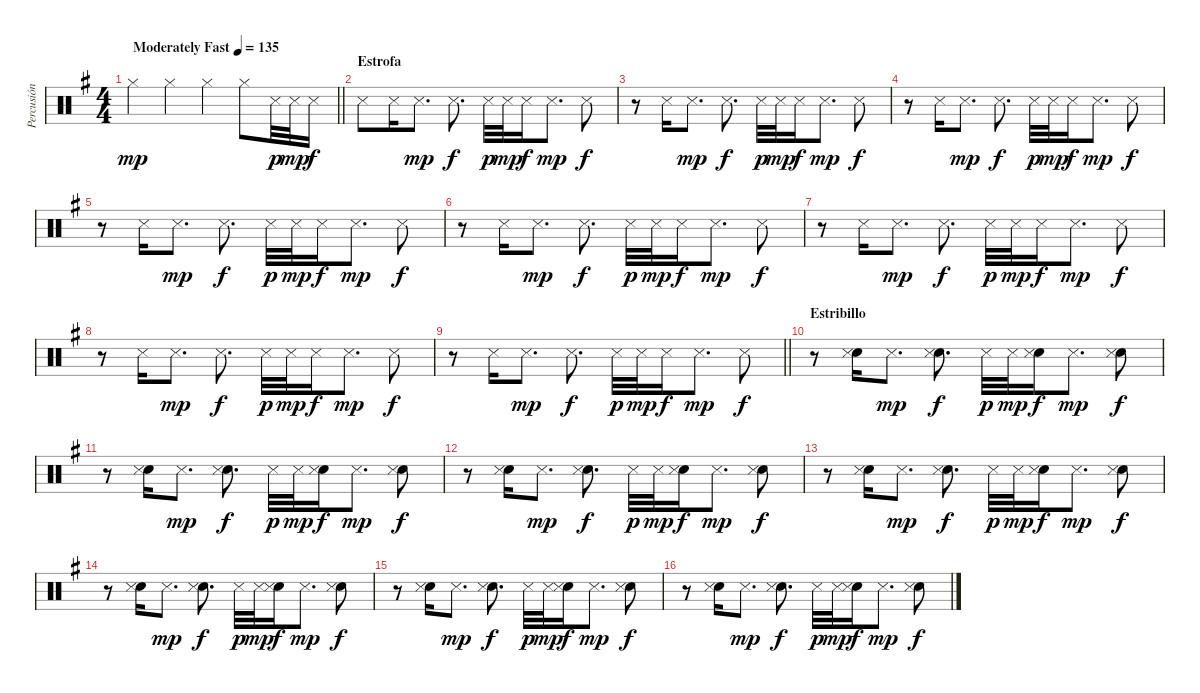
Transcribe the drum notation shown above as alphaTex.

\track ("Percusión" "Percusión") {instrument percussion}
\staff {score}
\articulation defaults
\ts (4 4)
\tempo (135 "Moderately Fast")
\clef neutral
\barLineRight lightlight
\ks g "Hi-Hat (closed)".4{dy mp} "Hi-Hat (closed)".4 "Hi-Hat (closed)".4 "Hi-Hat (closed)".8 "Snare (side stick) 3".32{dy p} "Snare (side stick) 3".32{dy mp} "Snare (side stick) 3".16{dy f}
|
\section ("" "Estrofa")
"Snare (side stick) 3".8 "Snare (side stick) 3".16 "Snare (side stick) 3".8{d dy mp} "Snare (side stick) 3".8{d dy f} "Snare (side stick) 3".32{dy p} "Snare (side stick) 3".32{dy mp} "Snare (side stick) 3".16{dy f} "Snare (side stick) 3".8{d dy mp} "Snare (side stick) 3".8{dy f} |
r.8 "Snare (side stick) 3".16 "Snare (side stick) 3".8{d dy mp} "Snare (side stick) 3".8{d dy f} "Snare (side stick) 3".32{dy p} "Snare (side stick) 3".32{dy mp} "Snare (side stick) 3".16{dy f} "Snare (side stick) 3".8{d dy mp} "Snare (side stick) 3".8{dy f} |
r.8 "Snare (side stick) 3".16 "Snare (side stick) 3".8{d dy mp} "Snare (side stick) 3".8{d dy f} "Snare (side stick) 3".32{dy p} "Snare (side stick) 3".32{dy mp} "Snare (side stick) 3".16{dy f} "Snare (side stick) 3".8{d dy mp} "Snare (side stick) 3".8{dy f} |
r.8 "Snare (side stick) 3".16 "Snare (side stick) 3".8{d dy mp} "Snare (side stick) 3".8{d dy f} "Snare (side stick) 3".32{dy p} "Snare (side stick) 3".32{dy mp} "Snare (side stick) 3".16{dy f} "Snare (side stick) 3".8{d dy mp} "Snare (side stick) 3".8{dy f} |
r.8 "Snare (side stick) 3".16 "Snare (side stick) 3".8{d dy mp} "Snare (side stick) 3".8{d dy f} "Snare (side stick) 3".32{dy p} "Snare (side stick) 3".32{dy mp} "Snare (side stick) 3".16{dy f} "Snare (side stick) 3".8{d dy mp} "Snare (side stick) 3".8{dy f} |
r.8 "Snare (side stick) 3".16 "Snare (side stick) 3".8{d dy mp} "Snare (side stick) 3".8{d dy f} "Snare (side stick) 3".32{dy p} "Snare (side stick) 3".32{dy mp} "Snare (side stick) 3".16{dy f} "Snare (side stick) 3".8{d dy mp} "Snare (side stick) 3".8{dy f} |
r.8 "Snare (side stick) 3".16 "Snare (side stick) 3".8{d dy mp} "Snare (side stick) 3".8{d dy f} "Snare (side stick) 3".32{dy p} "Snare (side stick) 3".32{dy mp} "Snare (side stick) 3".16{dy f} "Snare (side stick) 3".8{d dy mp} "Snare (side stick) 3".8{dy f} |
\barLineRight lightlight
r.8 "Snare (side stick) 3".16 "Snare (side stick) 3".8{d dy mp} "Snare (side stick) 3".8{d dy f} "Snare (side stick) 3".32{dy p} "Snare (side stick) 3".32{dy mp} "Snare (side stick) 3".16{dy f} "Snare (side stick) 3".8{d dy mp} "Snare (side stick) 3".8{dy f} |
\section ("" "Estribillo")
r.8 ("Hand Clap (hit)" "Snare (side stick) 3").16 "Snare (side stick) 3".8{d dy mp} ("Hand Clap (hit)" "Snare (side stick) 3").8{d dy f} "Snare (side stick) 3".32{dy p} "Snare (side stick) 3".32{dy mp} ("Hand Clap (hit)" "Snare (side stick) 3").16{dy f} "Snare (side stick) 3".8{d dy mp} ("Hand Clap (hit)" "Snare (side stick) 3").8{dy f} |
r.8 ("Hand Clap (hit)" "Snare (side stick) 3").16 "Snare (side stick) 3".8{d dy mp} ("Hand Clap (hit)" "Snare (side stick) 3").8{d dy f} "Snare (side stick) 3".32{dy p} "Snare (side stick) 3".32{dy mp} ("Hand Clap (hit)" "Snare (side stick) 3").16{dy f} "Snare (side stick) 3".8{d dy mp} ("Hand Clap (hit)" "Snare (side stick) 3").8{dy f} |
r.8 ("Hand Clap (hit)" "Snare (side stick) 3").16 "Snare (side stick) 3".8{d dy mp} ("Hand Clap (hit)" "Snare (side stick) 3").8{d dy f} "Snare (side stick) 3".32{dy p} "Snare (side stick) 3".32{dy mp} ("Hand Clap (hit)" "Snare (side stick) 3").16{dy f} "Snare (side stick) 3".8{d dy mp} ("Hand Clap (hit)" "Snare (side stick) 3").8{dy f} |
r.8 ("Hand Clap (hit)" "Snare (side stick) 3").16 "Snare (side stick) 3".8{d dy mp} ("Hand Clap (hit)" "Snare (side stick) 3").8{d dy f} "Snare (side stick) 3".32{dy p} "Snare (side stick) 3".32{dy mp} ("Hand Clap (hit)" "Snare (side stick) 3").16{dy f} "Snare (side stick) 3".8{d dy mp} ("Hand Clap (hit)" "Snare (side stick) 3").8{dy f} |
r.8 ("Hand Clap (hit)" "Snare (side stick) 3").16 "Snare (side stick) 3".8{d dy mp} ("Hand Clap (hit)" "Snare (side stick) 3").8{d dy f} "Snare (side stick) 3".32{dy p} "Snare (side stick) 3".32{dy mp} ("Hand Clap (hit)" "Snare (side stick) 3").16{dy f} "Snare (side stick) 3".8{d dy mp} ("Hand Clap (hit)" "Snare (side stick) 3").8{dy f} |
r.8 ("Hand Clap (hit)" "Snare (side stick) 3").16 "Snare (side stick) 3".8{d dy mp} ("Hand Clap (hit)" "Snare (side stick) 3").8{d dy f} "Snare (side stick) 3".32{dy p} "Snare (side stick) 3".32{dy mp} ("Hand Clap (hit)" "Snare (side stick) 3").16{dy f} "Snare (side stick) 3".8{d dy mp} ("Hand Clap (hit)" "Snare (side stick) 3").8{dy f} |
r.8 ("Hand Clap (hit)" "Snare (side stick) 3").16 "Snare (side stick) 3".8{d dy mp} ("Hand Clap (hit)" "Snare (side stick) 3").8{d dy f} "Snare (side stick) 3".32{dy p} "Snare (side stick) 3".32{dy mp} ("Hand Clap (hit)" "Snare (side stick) 3").16{dy f} "Snare (side stick) 3".8{d dy mp} ("Hand Clap (hit)" "Snare (side stick) 3").8{dy f}
